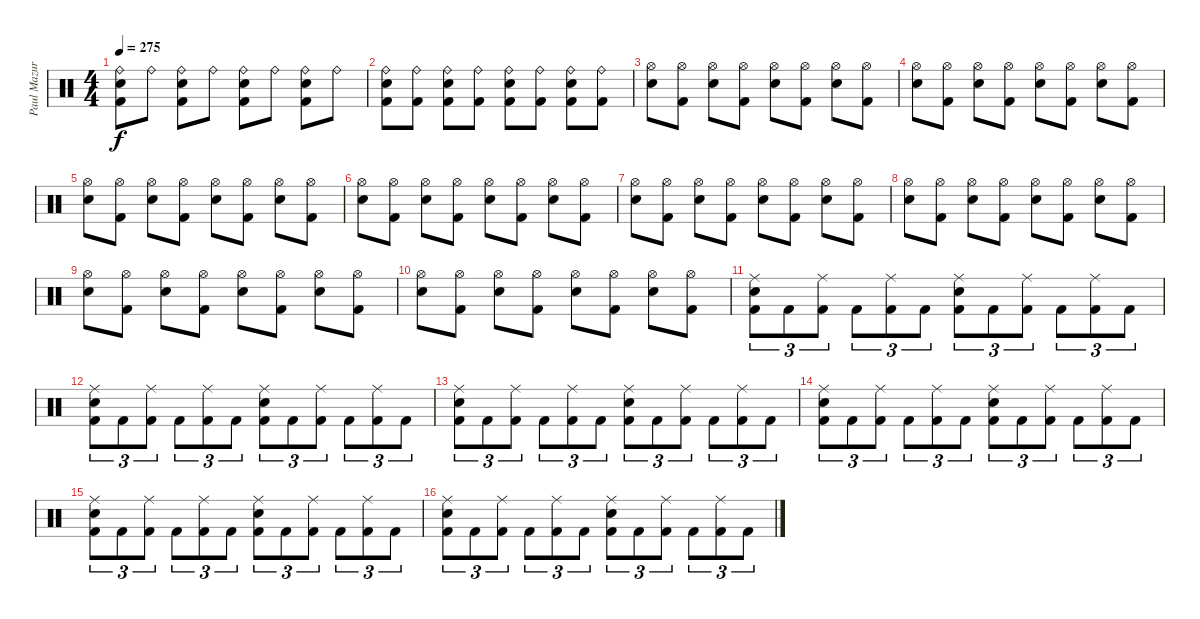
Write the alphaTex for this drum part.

\track ("Paul Mazurkiewicz" "Paul Mazur") {instrument percussion}
\staff {score}
\articulation defaults
\ts (4 4)
\tempo 275
\clef neutral
\ks c
("Ride (bell)" "Snare (hit) 2" "Kick (hit) 2").8{dy f} "Ride (bell)".8 ("Ride (bell)" "Snare (hit) 2" "Kick (hit) 2").8 "Ride (bell)".8 ("Ride (bell)" "Snare (hit) 2" "Kick (hit) 2").8 "Ride (bell)".8 ("Ride (bell)" "Snare (hit) 2" "Kick (hit) 2").8 "Ride (bell)".8 |
("Ride (bell)" "Snare (hit) 2" "Kick (hit) 2").8 ("Ride (bell)" "Kick (hit) 2").8 ("Ride (bell)" "Snare (hit) 2" "Kick (hit) 2").8 ("Ride (bell)" "Kick (hit) 2").8 ("Ride (bell)" "Snare (hit) 2" "Kick (hit) 2").8 ("Ride (bell)" "Kick (hit) 2").8 ("Ride (bell)" "Snare (hit) 2" "Kick (hit) 2").8 ("Ride (bell)" "Kick (hit) 2").8 |
("Hi-Hat (open)" "Snare (hit) 2").8 ("Hi-Hat (open)" "Kick (hit) 2").8 ("Hi-Hat (open)" "Snare (hit) 2").8 ("Hi-Hat (open)" "Kick (hit) 2").8 ("Hi-Hat (open)" "Snare (hit) 2").8 ("Hi-Hat (open)" "Kick (hit) 2").8 ("Hi-Hat (open)" "Snare (hit) 2").8 ("Hi-Hat (open)" "Kick (hit) 2").8 |
("Hi-Hat (open)" "Snare (hit) 2").8 ("Hi-Hat (open)" "Kick (hit) 2").8 ("Hi-Hat (open)" "Snare (hit) 2").8 ("Hi-Hat (open)" "Kick (hit) 2").8 ("Hi-Hat (open)" "Snare (hit) 2").8 ("Hi-Hat (open)" "Kick (hit) 2").8 ("Hi-Hat (open)" "Snare (hit) 2").8 ("Hi-Hat (open)" "Kick (hit) 2").8 |
("Hi-Hat (open)" "Snare (hit) 2").8 ("Hi-Hat (open)" "Kick (hit) 2").8 ("Hi-Hat (open)" "Snare (hit) 2").8 ("Hi-Hat (open)" "Kick (hit) 2").8 ("Hi-Hat (open)" "Snare (hit) 2").8 ("Hi-Hat (open)" "Kick (hit) 2").8 ("Hi-Hat (open)" "Snare (hit) 2").8 ("Hi-Hat (open)" "Kick (hit) 2").8 |
("Hi-Hat (open)" "Snare (hit) 2").8 ("Hi-Hat (open)" "Kick (hit) 2").8 ("Hi-Hat (open)" "Snare (hit) 2").8 ("Hi-Hat (open)" "Kick (hit) 2").8 ("Hi-Hat (open)" "Snare (hit) 2").8 ("Hi-Hat (open)" "Kick (hit) 2").8 ("Hi-Hat (open)" "Snare (hit) 2").8 ("Hi-Hat (open)" "Kick (hit) 2").8 |
("Hi-Hat (open)" "Snare (hit) 2").8 ("Hi-Hat (open)" "Kick (hit) 2").8 ("Hi-Hat (open)" "Snare (hit) 2").8 ("Hi-Hat (open)" "Kick (hit) 2").8 ("Hi-Hat (open)" "Snare (hit) 2").8 ("Hi-Hat (open)" "Kick (hit) 2").8 ("Hi-Hat (open)" "Snare (hit) 2").8 ("Hi-Hat (open)" "Kick (hit) 2").8 |
("Hi-Hat (open)" "Snare (hit) 2").8 ("Hi-Hat (open)" "Kick (hit) 2").8 ("Hi-Hat (open)" "Snare (hit) 2").8 ("Hi-Hat (open)" "Kick (hit) 2").8 ("Hi-Hat (open)" "Snare (hit) 2").8 ("Hi-Hat (open)" "Kick (hit) 2").8 ("Hi-Hat (open)" "Snare (hit) 2").8 ("Hi-Hat (open)" "Kick (hit) 2").8 |
("Hi-Hat (open)" "Snare (hit) 2").8 ("Hi-Hat (open)" "Kick (hit) 2").8 ("Hi-Hat (open)" "Snare (hit) 2").8 ("Hi-Hat (open)" "Kick (hit) 2").8 ("Hi-Hat (open)" "Snare (hit) 2").8 ("Hi-Hat (open)" "Kick (hit) 2").8 ("Hi-Hat (open)" "Snare (hit) 2").8 ("Hi-Hat (open)" "Kick (hit) 2").8 |
("Hi-Hat (open)" "Snare (hit) 2").8 ("Hi-Hat (open)" "Kick (hit) 2").8 ("Hi-Hat (open)" "Snare (hit) 2").8 ("Hi-Hat (open)" "Kick (hit) 2").8 ("Hi-Hat (open)" "Snare (hit) 2").8 ("Hi-Hat (open)" "Kick (hit) 2").8 ("Hi-Hat (open)" "Snare (hit) 2").8 ("Hi-Hat (open)" "Kick (hit) 2").8 |
("Ride (middle)" "Snare (hit) 2" "Kick (hit) 2").8{tu (3 2)} "Kick (hit) 2".8{tu (3 2)} ("Ride (middle)" "Kick (hit) 2").8{tu (3 2)} "Kick (hit) 2".8{tu (3 2)} ("Ride (middle)" "Kick (hit) 2").8{tu (3 2)} "Kick (hit) 2".8{tu (3 2)} ("Ride (middle)" "Snare (hit) 2" "Kick (hit) 2").8{tu (3 2)} "Kick (hit) 2".8{tu (3 2)} ("Ride (middle)" "Kick (hit) 2").8{tu (3 2)} "Kick (hit) 2".8{tu (3 2)} ("Ride (middle)" "Kick (hit) 2").8{tu (3 2)} "Kick (hit) 2".8{tu (3 2)} |
("Ride (middle)" "Snare (hit) 2" "Kick (hit) 2").8{tu (3 2)} "Kick (hit) 2".8{tu (3 2)} ("Ride (middle)" "Kick (hit) 2").8{tu (3 2)} "Kick (hit) 2".8{tu (3 2)} ("Ride (middle)" "Kick (hit) 2").8{tu (3 2)} "Kick (hit) 2".8{tu (3 2)} ("Ride (middle)" "Snare (hit) 2" "Kick (hit) 2").8{tu (3 2)} "Kick (hit) 2".8{tu (3 2)} ("Ride (middle)" "Kick (hit) 2").8{tu (3 2)} "Kick (hit) 2".8{tu (3 2)} ("Ride (middle)" "Kick (hit) 2").8{tu (3 2)} "Kick (hit) 2".8{tu (3 2)} |
("Ride (middle)" "Snare (hit) 2" "Kick (hit) 2").8{tu (3 2)} "Kick (hit) 2".8{tu (3 2)} ("Ride (middle)" "Kick (hit) 2").8{tu (3 2)} "Kick (hit) 2".8{tu (3 2)} ("Ride (middle)" "Kick (hit) 2").8{tu (3 2)} "Kick (hit) 2".8{tu (3 2)} ("Ride (middle)" "Snare (hit) 2" "Kick (hit) 2").8{tu (3 2)} "Kick (hit) 2".8{tu (3 2)} ("Ride (middle)" "Kick (hit) 2").8{tu (3 2)} "Kick (hit) 2".8{tu (3 2)} ("Ride (middle)" "Kick (hit) 2").8{tu (3 2)} "Kick (hit) 2".8{tu (3 2)} |
("Ride (middle)" "Snare (hit) 2" "Kick (hit) 2").8{tu (3 2)} "Kick (hit) 2".8{tu (3 2)} ("Ride (middle)" "Kick (hit) 2").8{tu (3 2)} "Kick (hit) 2".8{tu (3 2)} ("Ride (middle)" "Kick (hit) 2").8{tu (3 2)} "Kick (hit) 2".8{tu (3 2)} ("Ride (middle)" "Snare (hit) 2" "Kick (hit) 2").8{tu (3 2)} "Kick (hit) 2".8{tu (3 2)} ("Ride (middle)" "Kick (hit) 2").8{tu (3 2)} "Kick (hit) 2".8{tu (3 2)} ("Ride (middle)" "Kick (hit) 2").8{tu (3 2)} "Kick (hit) 2".8{tu (3 2)} |
("Ride (middle)" "Snare (hit) 2" "Kick (hit) 2").8{tu (3 2)} "Kick (hit) 2".8{tu (3 2)} ("Ride (middle)" "Kick (hit) 2").8{tu (3 2)} "Kick (hit) 2".8{tu (3 2)} ("Ride (middle)" "Kick (hit) 2").8{tu (3 2)} "Kick (hit) 2".8{tu (3 2)} ("Ride (middle)" "Snare (hit) 2" "Kick (hit) 2").8{tu (3 2)} "Kick (hit) 2".8{tu (3 2)} ("Ride (middle)" "Kick (hit) 2").8{tu (3 2)} "Kick (hit) 2".8{tu (3 2)} ("Ride (middle)" "Kick (hit) 2").8{tu (3 2)} "Kick (hit) 2".8{tu (3 2)} |
("Ride (middle)" "Snare (hit) 2" "Kick (hit) 2").8{tu (3 2)} "Kick (hit) 2".8{tu (3 2)} ("Ride (middle)" "Kick (hit) 2").8{tu (3 2)} "Kick (hit) 2".8{tu (3 2)} ("Ride (middle)" "Kick (hit) 2").8{tu (3 2)} "Kick (hit) 2".8{tu (3 2)} ("Ride (middle)" "Snare (hit) 2" "Kick (hit) 2").8{tu (3 2)} "Kick (hit) 2".8{tu (3 2)} ("Ride (middle)" "Kick (hit) 2").8{tu (3 2)} "Kick (hit) 2".8{tu (3 2)} ("Ride (middle)" "Kick (hit) 2").8{tu (3 2)} "Kick (hit) 2".8{tu (3 2)}
